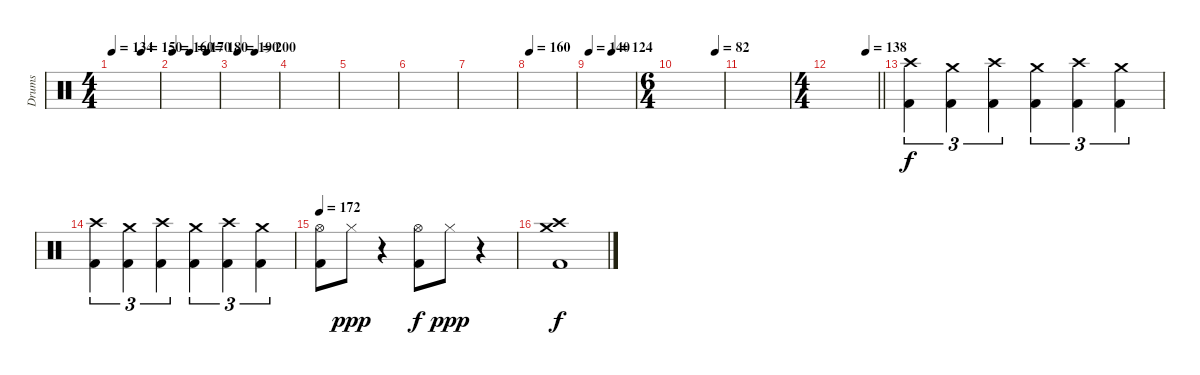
\track ("Drums" "Drums") {instrument percussion}
\staff {score}
\articulation defaults
\ts (4 4)
\tempo 134
\tempo (150 0.625)
\clef neutral
\ks c
|
\tempo 160
\tempo (170 0.375)
\tempo (180 0.75)
|
\tempo (190 0.125)
\tempo (200 0.5)
|
|
|
|
|
\tempo 160
|
\tempo 140
\tempo (124 0.5)
|
\ts (6 4)
\tempo (82 0.8333333333333334)
|
|
\ts (4 4)
\tempo (138 0.75)
\barLineRight lightlight
|
("Crash high (hit)" "Kick (hit) 2").4{tu (3 2)} ("Crash medium (hit)" "Kick (hit) 2").4{tu (3 2)} ("Crash high (hit)" "Kick (hit) 2").4{tu (3 2)} ("Crash medium (hit)" "Kick (hit) 2").4{tu (3 2)} ("Crash high (hit)" "Kick (hit) 2").4{tu (3 2)} ("Crash medium (hit)" "Kick (hit) 2").4{tu (3 2)} |
("Crash high (hit)" "Kick (hit) 2").4{tu (3 2)} ("Crash medium (hit)" "Kick (hit) 2").4{tu (3 2)} ("Crash high (hit)" "Kick (hit) 2").4{tu (3 2)} ("Crash medium (hit)" "Kick (hit) 2").4{tu (3 2)} ("Crash high (hit)" "Kick (hit) 2").4{tu (3 2)} ("Crash medium (hit)" "Kick (hit) 2").4{tu (3 2)} |
\tempo 172
("Hi-Hat (open)" "Kick (hit) 2").8 "Hi-Hat (closed)".8{dy ppp} r.4 ("Hi-Hat (open)" "Kick (hit) 2").8{dy f} "Hi-Hat (closed)".8{dy ppp} r.4 |
("Crash high (hit)" "Crash medium (hit)" "Kick (hit) 2").1{dy f}
